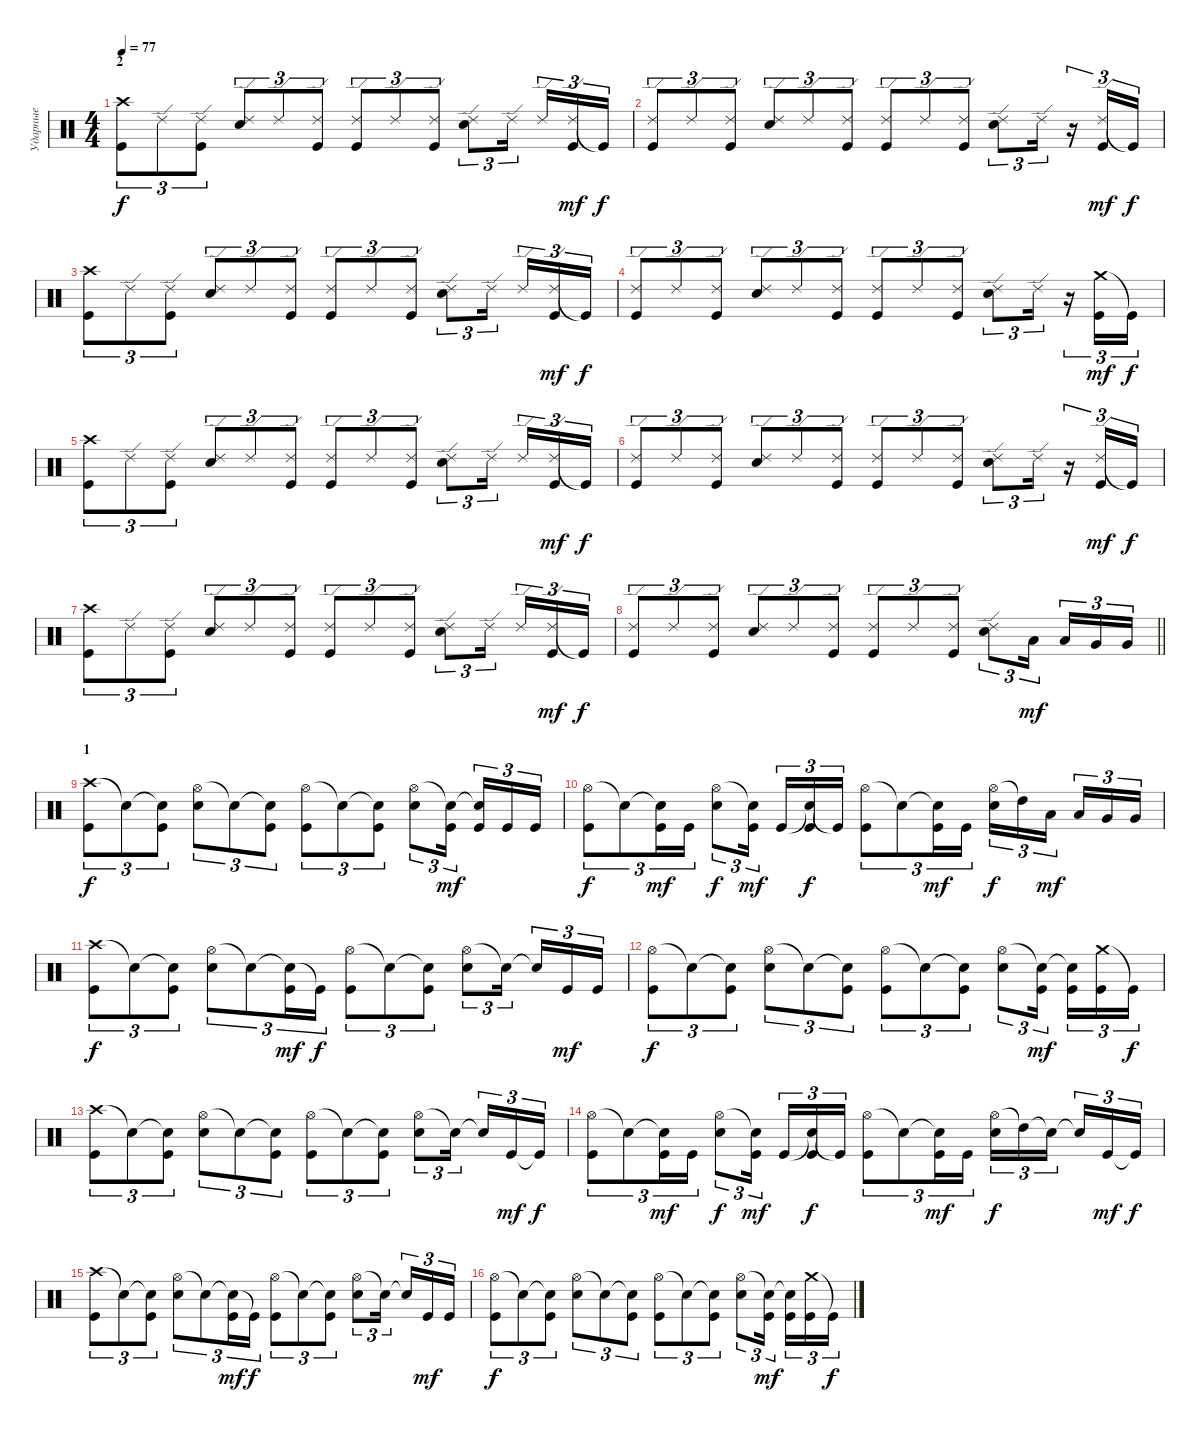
\track ("Ударные" "Ударные") {instrument percussion}
\staff {score}
\articulation defaults
\ts (4 4)
\section ("" "2")
\tempo 77
\clef neutral
\ks c
("Crash high (hit)" "Kick (hit)").8{tu (3 2) dy f} "Ride (edge) 2".8{tu (3 2)} ("Ride (edge) 2" "Kick (hit)").8{tu (3 2)} ("Ride (edge) 2" "Snare (hit) 2").8{tu (3 2)} "Ride (edge) 2".8{tu (3 2)} ("Ride (edge) 2" "Kick (hit)").8{tu (3 2)} ("Ride (edge) 2" "Kick (hit)").8{tu (3 2)} "Ride (edge) 2".8{tu (3 2)} ("Ride (edge) 2" "Kick (hit)").8{tu (3 2)} ("Ride (edge) 2" "Snare (hit) 2").8{tu (3 2)} "Ride (edge) 2".16{tu (3 2) beam splitsecondary} "Ride (edge) 2".16{tu (3 2)} ("Ride (edge) 2" "Kick (hit)").16{tu (3 2) dy mf} "Kick (hit)"{t}.16{tu (3 2) dy f} |
("Ride (edge) 2" "Kick (hit)").8{tu (3 2)} "Ride (edge) 2".8{tu (3 2)} ("Ride (edge) 2" "Kick (hit)").8{tu (3 2)} ("Ride (edge) 2" "Snare (hit) 2").8{tu (3 2)} "Ride (edge) 2".8{tu (3 2)} ("Ride (edge) 2" "Kick (hit)").8{tu (3 2)} ("Ride (edge) 2" "Kick (hit)").8{tu (3 2)} "Ride (edge) 2".8{tu (3 2)} ("Ride (edge) 2" "Kick (hit)").8{tu (3 2)} ("Ride (edge) 2" "Snare (hit) 2").8{tu (3 2)} "Ride (edge) 2".16{tu (3 2)} r.16{tu (3 2)} ("Ride (edge) 2" "Kick (hit)").16{tu (3 2) dy mf} "Kick (hit)"{t}.16{tu (3 2) dy f} |
("Crash high (hit)" "Kick (hit)").8{tu (3 2)} "Ride (edge) 2".8{tu (3 2)} ("Ride (edge) 2" "Kick (hit)").8{tu (3 2)} ("Ride (edge) 2" "Snare (hit) 2").8{tu (3 2)} "Ride (edge) 2".8{tu (3 2)} ("Ride (edge) 2" "Kick (hit)").8{tu (3 2)} ("Ride (edge) 2" "Kick (hit)").8{tu (3 2)} "Ride (edge) 2".8{tu (3 2)} ("Ride (edge) 2" "Kick (hit)").8{tu (3 2)} ("Ride (edge) 2" "Snare (hit) 2").8{tu (3 2)} "Ride (edge) 2".16{tu (3 2) beam splitsecondary} "Ride (edge) 2".16{tu (3 2)} ("Ride (edge) 2" "Kick (hit)").16{tu (3 2) dy mf} "Kick (hit)"{t}.16{tu (3 2) dy f} |
("Ride (edge) 2" "Kick (hit)").8{tu (3 2)} "Ride (edge) 2".8{tu (3 2)} ("Ride (edge) 2" "Kick (hit)").8{tu (3 2)} ("Ride (edge) 2" "Snare (hit) 2").8{tu (3 2)} "Ride (edge) 2".8{tu (3 2)} ("Ride (edge) 2" "Kick (hit)").8{tu (3 2)} ("Ride (edge) 2" "Kick (hit)").8{tu (3 2)} "Ride (edge) 2".8{tu (3 2)} ("Ride (edge) 2" "Kick (hit)").8{tu (3 2)} ("Ride (edge) 2" "Snare (hit) 2").8{tu (3 2)} "Ride (edge) 2".16{tu (3 2)} r.16{tu (3 2)} ("Crash medium (hit)" "Kick (hit)").16{tu (3 2) dy mf} "Kick (hit)"{t}.16{tu (3 2) dy f} |
("Crash high (hit)" "Kick (hit)").8{tu (3 2)} "Ride (edge) 2".8{tu (3 2)} ("Ride (edge) 2" "Kick (hit)").8{tu (3 2)} ("Ride (edge) 2" "Snare (hit) 2").8{tu (3 2)} "Ride (edge) 2".8{tu (3 2)} ("Ride (edge) 2" "Kick (hit)").8{tu (3 2)} ("Ride (edge) 2" "Kick (hit)").8{tu (3 2)} "Ride (edge) 2".8{tu (3 2)} ("Ride (edge) 2" "Kick (hit)").8{tu (3 2)} ("Ride (edge) 2" "Snare (hit) 2").8{tu (3 2)} "Ride (edge) 2".16{tu (3 2) beam splitsecondary} "Ride (edge) 2".16{tu (3 2)} ("Ride (edge) 2" "Kick (hit)").16{tu (3 2) dy mf} "Kick (hit)"{t}.16{tu (3 2) dy f} |
("Ride (edge) 2" "Kick (hit)").8{tu (3 2)} "Ride (edge) 2".8{tu (3 2)} ("Ride (edge) 2" "Kick (hit)").8{tu (3 2)} ("Ride (edge) 2" "Snare (hit) 2").8{tu (3 2)} "Ride (edge) 2".8{tu (3 2)} ("Ride (edge) 2" "Kick (hit)").8{tu (3 2)} ("Ride (edge) 2" "Kick (hit)").8{tu (3 2)} "Ride (edge) 2".8{tu (3 2)} ("Ride (edge) 2" "Kick (hit)").8{tu (3 2)} ("Ride (edge) 2" "Snare (hit) 2").8{tu (3 2)} "Ride (edge) 2".16{tu (3 2)} r.16{tu (3 2)} ("Ride (edge) 2" "Kick (hit)").16{tu (3 2) dy mf} "Kick (hit)"{t}.16{tu (3 2) dy f} |
("Crash high (hit)" "Kick (hit)").8{tu (3 2)} "Ride (edge) 2".8{tu (3 2)} ("Ride (edge) 2" "Kick (hit)").8{tu (3 2)} ("Ride (edge) 2" "Snare (hit) 2").8{tu (3 2)} "Ride (edge) 2".8{tu (3 2)} ("Ride (edge) 2" "Kick (hit)").8{tu (3 2)} ("Ride (edge) 2" "Kick (hit)").8{tu (3 2)} "Ride (edge) 2".8{tu (3 2)} ("Ride (edge) 2" "Kick (hit)").8{tu (3 2)} ("Ride (edge) 2" "Snare (hit) 2").8{tu (3 2)} "Ride (edge) 2".16{tu (3 2) beam splitsecondary} "Ride (edge) 2".16{tu (3 2)} ("Ride (edge) 2" "Kick (hit)").16{tu (3 2) dy mf} "Kick (hit)"{t}.16{tu (3 2) dy f} |
\barLineRight lightlight
("Ride (edge) 2" "Kick (hit)").8{tu (3 2)} "Ride (edge) 2".8{tu (3 2)} ("Ride (edge) 2" "Kick (hit)").8{tu (3 2)} ("Ride (edge) 2" "Snare (hit) 2").8{tu (3 2)} "Ride (edge) 2".8{tu (3 2)} ("Ride (edge) 2" "Kick (hit)").8{tu (3 2)} ("Ride (edge) 2" "Kick (hit)").8{tu (3 2)} "Ride (edge) 2".8{tu (3 2)} ("Ride (edge) 2" "Kick (hit)").8{tu (3 2)} ("Ride (edge) 2" "Snare (hit) 2").8{tu (3 2)} "Low Tom (hit)".16{tu (3 2) dy mf beam splitsecondary} "Low Tom (hit)".16{tu (3 2)} "Very Low Tom (hit)".16{tu (3 2)} "Very Low Tom (hit)".16{tu (3 2)} |
\section ("" "1")
("Crash high (hit)" "Kick (hit)").8{tu (3 2) dy f} "Snare (hit)"{t}.8{tu (3 2)} ("Snare (hit)"{t} "Kick (hit)").8{tu (3 2)} ("Hi-Hat (open)" "Snare (hit) 2").8{tu (3 2)} "Snare (hit)"{t}.8{tu (3 2)} ("Snare (hit)"{t} "Kick (hit)").8{tu (3 2)} ("Hi-Hat (open)" "Kick (hit)").8{tu (3 2)} "Snare (hit)"{t}.8{tu (3 2)} ("Snare (hit)"{t} "Kick (hit)").8{tu (3 2)} ("Hi-Hat (open)" "Snare (hit) 2").8{tu (3 2)} ("Snare (hit)"{t} "Kick (hit)").16{tu (3 2) dy mf beam splitsecondary} ("Snare (hit)"{t} "Kick (hit)").16{tu (3 2)} "Kick (hit)".16{tu (3 2)} "Kick (hit)".16{tu (3 2)} |
("Hi-Hat (open)" "Kick (hit)").8{tu (3 2) dy f} "Snare (hit)"{t}.8{tu (3 2)} ("Snare (hit)"{t} "Kick (hit)").16{tu (3 2) dy mf} "Kick (hit)".16{tu (3 2)} ("Hi-Hat (open)" "Snare (hit) 2").8{tu (3 2) dy f} ("Snare (hit)"{t} "Kick (hit)").16{tu (3 2) dy mf beam splitsecondary} "Kick (hit)".16{tu (3 2)} ("Snare (hit)"{t} "Kick (hit)").16{tu (3 2) dy f} "Kick (hit)"{t}.16{tu (3 2)} ("Hi-Hat (open)" "Kick (hit)").8{tu (3 2)} "Snare (hit)"{t}.8{tu (3 2)} ("Snare (hit)"{t} "Kick (hit)").16{tu (3 2) dy mf} "Kick (hit)".16{tu (3 2)} ("Hi-Hat (open)" "Snare (hit) 2").16{tu (3 2) dy f} "High Tom (hit)"{t}.16{tu (3 2)} "Low Tom (hit)".16{tu (3 2) dy mf beam splitsecondary} "Low Tom (hit)".16{tu (3 2)} "Very Low Tom (hit)".16{tu (3 2)} "Very Low Tom (hit)".16{tu (3 2)} |
("Crash high (hit)" "Kick (hit)").8{tu (3 2) dy f} "Snare (hit)"{t}.8{tu (3 2)} ("Snare (hit)"{t} "Kick (hit)").8{tu (3 2)} ("Hi-Hat (open)" "Snare (hit) 2").8{tu (3 2)} "Snare (hit)"{t}.8{tu (3 2)} ("Snare (hit)"{t} "Kick (hit)").16{tu (3 2) dy mf} "Kick (hit)"{t}.16{tu (3 2) dy f} ("Hi-Hat (open)" "Kick (hit)").8{tu (3 2)} "Snare (hit)"{t}.8{tu (3 2)} ("Snare (hit)"{t} "Kick (hit)").8{tu (3 2)} ("Hi-Hat (open)" "Snare (hit) 2").8{tu (3 2)} "Snare (hit)"{t}.16{tu (3 2) beam splitsecondary} "Snare (hit)"{t}.16{tu (3 2)} "Kick (hit)".16{tu (3 2) dy mf} "Kick (hit)".16{tu (3 2)} |
("Hi-Hat (open)" "Kick (hit)").8{tu (3 2) dy f} "Snare (hit)"{t}.8{tu (3 2)} ("Snare (hit)"{t} "Kick (hit)").8{tu (3 2)} ("Hi-Hat (open)" "Snare (hit) 2").8{tu (3 2)} "Snare (hit)"{t}.8{tu (3 2)} ("Snare (hit)"{t} "Kick (hit)").8{tu (3 2)} ("Hi-Hat (open)" "Kick (hit)").8{tu (3 2)} "Snare (hit)"{t}.8{tu (3 2)} ("Snare (hit)"{t} "Kick (hit)").8{tu (3 2)} ("Hi-Hat (open)" "Snare (hit) 2").8{tu (3 2)} ("Snare (hit)"{t} "Kick (hit)").16{tu (3 2) dy mf beam splitsecondary} ("Snare (hit)"{t} "Kick (hit)").16{tu (3 2)} ("Crash medium (hit)" "Kick (hit)").16{tu (3 2)} "Kick (hit)"{t}.16{tu (3 2) dy f} |
("Crash high (hit)" "Kick (hit)").8{tu (3 2)} "Snare (hit)"{t}.8{tu (3 2)} ("Snare (hit)"{t} "Kick (hit)").8{tu (3 2)} ("Hi-Hat (open)" "Snare (hit) 2").8{tu (3 2)} "Snare (hit)"{t}.8{tu (3 2)} ("Snare (hit)"{t} "Kick (hit)").8{tu (3 2)} ("Hi-Hat (open)" "Kick (hit)").8{tu (3 2)} "Snare (hit)"{t}.8{tu (3 2)} ("Snare (hit)"{t} "Kick (hit)").8{tu (3 2)} ("Hi-Hat (open)" "Snare (hit) 2").8{tu (3 2)} "Snare (hit)"{t}.16{tu (3 2) beam splitsecondary} "Snare (hit)"{t}.16{tu (3 2)} "Kick (hit)".16{tu (3 2) dy mf} "Kick (hit)"{t}.16{tu (3 2) dy f} |
("Hi-Hat (open)" "Kick (hit)").8{tu (3 2)} "Snare (hit)"{t}.8{tu (3 2)} ("Snare (hit)"{t} "Kick (hit)").16{tu (3 2) dy mf} "Kick (hit)".16{tu (3 2)} ("Hi-Hat (open)" "Snare (hit) 2").8{tu (3 2) dy f} ("Snare (hit)"{t} "Kick (hit)").16{tu (3 2) dy mf beam splitsecondary} "Kick (hit)".16{tu (3 2)} ("Snare (hit)"{t} "Kick (hit)").16{tu (3 2) dy f} "Kick (hit)"{t}.16{tu (3 2)} ("Hi-Hat (open)" "Kick (hit)").8{tu (3 2)} "Snare (hit)"{t}.8{tu (3 2)} ("Snare (hit)"{t} "Kick (hit)").16{tu (3 2) dy mf} "Kick (hit)".16{tu (3 2)} ("Hi-Hat (open)" "Snare (hit) 2").16{tu (3 2) dy f} "High Tom (hit)"{t}.16{tu (3 2)} "Snare (hit)"{t}.16{tu (3 2) beam splitsecondary} "Snare (hit)"{t}.16{tu (3 2)} "Kick (hit)".16{tu (3 2) dy mf} "Kick (hit)"{t}.16{tu (3 2) dy f} |
("Crash high (hit)" "Kick (hit)").8{tu (3 2)} "Snare (hit)"{t}.8{tu (3 2)} ("Snare (hit)"{t} "Kick (hit)").8{tu (3 2)} ("Hi-Hat (open)" "Snare (hit) 2").8{tu (3 2)} "Snare (hit)"{t}.8{tu (3 2)} ("Snare (hit)"{t} "Kick (hit)").16{tu (3 2) dy mf} "Kick (hit)"{t}.16{tu (3 2) dy f} ("Hi-Hat (open)" "Kick (hit)").8{tu (3 2)} "Snare (hit)"{t}.8{tu (3 2)} ("Snare (hit)"{t} "Kick (hit)").8{tu (3 2)} ("Hi-Hat (open)" "Snare (hit) 2").8{tu (3 2)} "Snare (hit)"{t}.16{tu (3 2) beam splitsecondary} "Snare (hit)"{t}.16{tu (3 2)} "Kick (hit)".16{tu (3 2) dy mf} "Kick (hit)".16{tu (3 2)} |
("Hi-Hat (open)" "Kick (hit)").8{tu (3 2) dy f} "Snare (hit)"{t}.8{tu (3 2)} ("Snare (hit)"{t} "Kick (hit)").8{tu (3 2)} ("Hi-Hat (open)" "Snare (hit) 2").8{tu (3 2)} "Snare (hit)"{t}.8{tu (3 2)} ("Snare (hit)"{t} "Kick (hit)").8{tu (3 2)} ("Hi-Hat (open)" "Kick (hit)").8{tu (3 2)} "Snare (hit)"{t}.8{tu (3 2)} ("Snare (hit)"{t} "Kick (hit)").8{tu (3 2)} ("Hi-Hat (open)" "Snare (hit) 2").8{tu (3 2)} ("Snare (hit)"{t} "Kick (hit)").16{tu (3 2) dy mf beam splitsecondary} ("Snare (hit)"{t} "Kick (hit)").16{tu (3 2)} ("Crash medium (hit)" "Kick (hit)").16{tu (3 2)} "Kick (hit)"{t}.16{tu (3 2) dy f}
